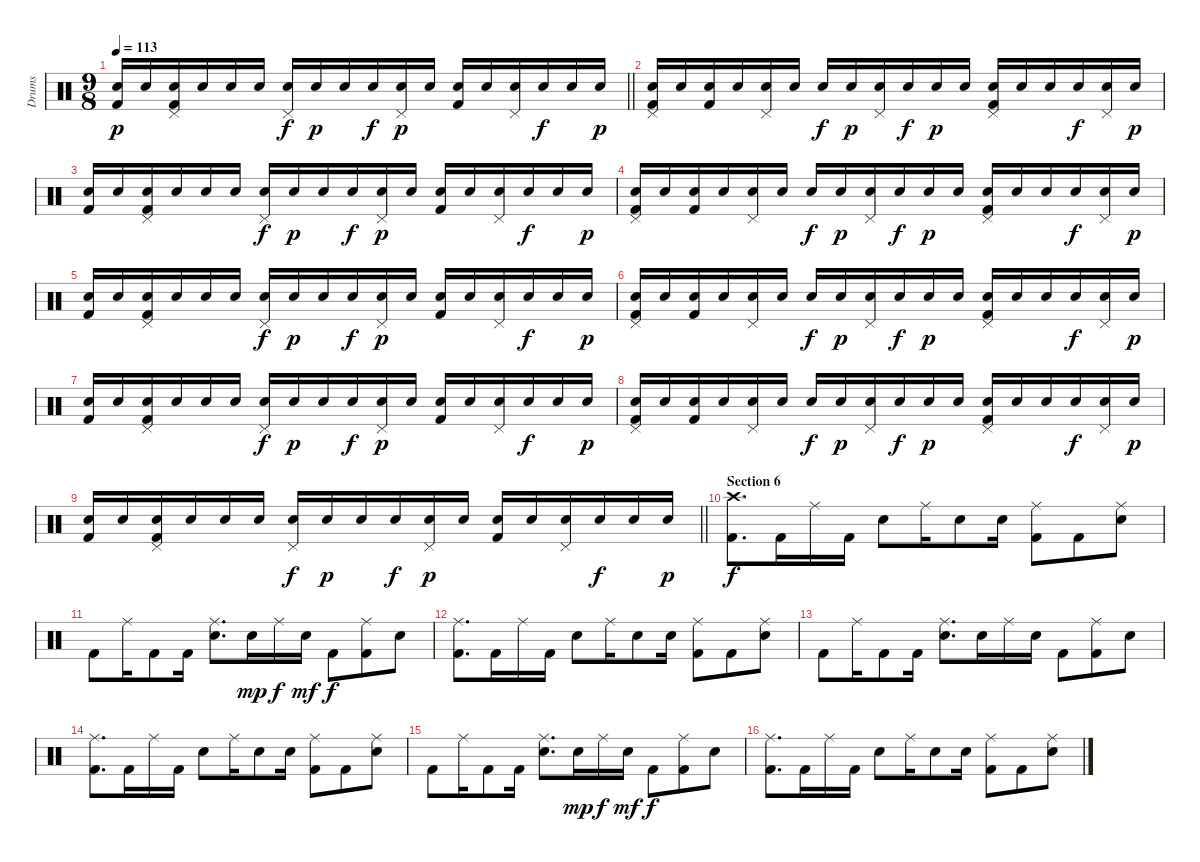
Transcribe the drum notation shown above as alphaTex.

\track ("Drums" "Drums") {instrument percussion}
\staff {score}
\articulation defaults
\ts (9 8)
\tempo 113
\clef neutral
\barLineRight lightlight
\ks c
("Electric Snare (hit)" "Kick (hit) 2").16{dy p} "Electric Snare (hit)".16 ("Pedal Hi-Hat (hit)" "Electric Snare (hit)" "Kick (hit) 2").16 "Electric Snare (hit)".16 "Electric Snare (hit)".16 "Electric Snare (hit)".16 ("Pedal Hi-Hat (hit)" "Electric Snare (hit)").16{dy f} "Electric Snare (hit)".16{dy p} "Electric Snare (hit)".16 "Electric Snare (hit)".16{dy f} ("Pedal Hi-Hat (hit)" "Electric Snare (hit)").16{dy p} "Electric Snare (hit)".16 ("Electric Snare (hit)" "Kick (hit) 2").16 "Electric Snare (hit)".16 ("Pedal Hi-Hat (hit)" "Electric Snare (hit)").16 "Electric Snare (hit)".16{dy f} "Electric Snare (hit)".16 "Electric Snare (hit)".16{dy p} |
("Pedal Hi-Hat (hit)" "Electric Snare (hit)" "Kick (hit) 2").16 "Electric Snare (hit)".16 ("Electric Snare (hit)" "Kick (hit) 2").16 "Electric Snare (hit)".16 ("Pedal Hi-Hat (hit)" "Electric Snare (hit)").16 "Electric Snare (hit)".16 "Electric Snare (hit)".16{dy f} "Electric Snare (hit)".16{dy p} ("Pedal Hi-Hat (hit)" "Electric Snare (hit)").16 "Electric Snare (hit)".16{dy f} "Electric Snare (hit)".16{dy p} "Electric Snare (hit)".16 ("Pedal Hi-Hat (hit)" "Electric Snare (hit)" "Kick (hit) 2").16 "Electric Snare (hit)".16 "Electric Snare (hit)".16 "Electric Snare (hit)".16{dy f} ("Pedal Hi-Hat (hit)" "Electric Snare (hit)").16 "Electric Snare (hit)".16{dy p} |
("Electric Snare (hit)" "Kick (hit) 2").16 "Electric Snare (hit)".16 ("Pedal Hi-Hat (hit)" "Electric Snare (hit)" "Kick (hit) 2").16 "Electric Snare (hit)".16 "Electric Snare (hit)".16 "Electric Snare (hit)".16 ("Pedal Hi-Hat (hit)" "Electric Snare (hit)").16{dy f} "Electric Snare (hit)".16{dy p} "Electric Snare (hit)".16 "Electric Snare (hit)".16{dy f} ("Pedal Hi-Hat (hit)" "Electric Snare (hit)").16{dy p} "Electric Snare (hit)".16 ("Electric Snare (hit)" "Kick (hit) 2").16 "Electric Snare (hit)".16 ("Pedal Hi-Hat (hit)" "Electric Snare (hit)").16 "Electric Snare (hit)".16{dy f} "Electric Snare (hit)".16 "Electric Snare (hit)".16{dy p} |
("Pedal Hi-Hat (hit)" "Electric Snare (hit)" "Kick (hit) 2").16 "Electric Snare (hit)".16 ("Electric Snare (hit)" "Kick (hit) 2").16 "Electric Snare (hit)".16 ("Pedal Hi-Hat (hit)" "Electric Snare (hit)").16 "Electric Snare (hit)".16 "Electric Snare (hit)".16{dy f} "Electric Snare (hit)".16{dy p} ("Pedal Hi-Hat (hit)" "Electric Snare (hit)").16 "Electric Snare (hit)".16{dy f} "Electric Snare (hit)".16{dy p} "Electric Snare (hit)".16 ("Pedal Hi-Hat (hit)" "Electric Snare (hit)" "Kick (hit) 2").16 "Electric Snare (hit)".16 "Electric Snare (hit)".16 "Electric Snare (hit)".16{dy f} ("Pedal Hi-Hat (hit)" "Electric Snare (hit)").16 "Electric Snare (hit)".16{dy p} |
("Electric Snare (hit)" "Kick (hit) 2").16 "Electric Snare (hit)".16 ("Pedal Hi-Hat (hit)" "Electric Snare (hit)" "Kick (hit) 2").16 "Electric Snare (hit)".16 "Electric Snare (hit)".16 "Electric Snare (hit)".16 ("Pedal Hi-Hat (hit)" "Electric Snare (hit)").16{dy f} "Electric Snare (hit)".16{dy p} "Electric Snare (hit)".16 "Electric Snare (hit)".16{dy f} ("Pedal Hi-Hat (hit)" "Electric Snare (hit)").16{dy p} "Electric Snare (hit)".16 ("Electric Snare (hit)" "Kick (hit) 2").16 "Electric Snare (hit)".16 ("Pedal Hi-Hat (hit)" "Electric Snare (hit)").16 "Electric Snare (hit)".16{dy f} "Electric Snare (hit)".16 "Electric Snare (hit)".16{dy p} |
("Pedal Hi-Hat (hit)" "Electric Snare (hit)" "Kick (hit) 2").16 "Electric Snare (hit)".16 ("Electric Snare (hit)" "Kick (hit) 2").16 "Electric Snare (hit)".16 ("Pedal Hi-Hat (hit)" "Electric Snare (hit)").16 "Electric Snare (hit)".16 "Electric Snare (hit)".16{dy f} "Electric Snare (hit)".16{dy p} ("Pedal Hi-Hat (hit)" "Electric Snare (hit)").16 "Electric Snare (hit)".16{dy f} "Electric Snare (hit)".16{dy p} "Electric Snare (hit)".16 ("Pedal Hi-Hat (hit)" "Electric Snare (hit)" "Kick (hit) 2").16 "Electric Snare (hit)".16 "Electric Snare (hit)".16 "Electric Snare (hit)".16{dy f} ("Pedal Hi-Hat (hit)" "Electric Snare (hit)").16 "Electric Snare (hit)".16{dy p} |
("Electric Snare (hit)" "Kick (hit) 2").16 "Electric Snare (hit)".16 ("Pedal Hi-Hat (hit)" "Electric Snare (hit)" "Kick (hit) 2").16 "Electric Snare (hit)".16 "Electric Snare (hit)".16 "Electric Snare (hit)".16 ("Pedal Hi-Hat (hit)" "Electric Snare (hit)").16{dy f} "Electric Snare (hit)".16{dy p} "Electric Snare (hit)".16 "Electric Snare (hit)".16{dy f} ("Pedal Hi-Hat (hit)" "Electric Snare (hit)").16{dy p} "Electric Snare (hit)".16 ("Electric Snare (hit)" "Kick (hit) 2").16 "Electric Snare (hit)".16 ("Pedal Hi-Hat (hit)" "Electric Snare (hit)").16 "Electric Snare (hit)".16{dy f} "Electric Snare (hit)".16 "Electric Snare (hit)".16{dy p} |
("Pedal Hi-Hat (hit)" "Electric Snare (hit)" "Kick (hit) 2").16 "Electric Snare (hit)".16 ("Electric Snare (hit)" "Kick (hit) 2").16 "Electric Snare (hit)".16 ("Pedal Hi-Hat (hit)" "Electric Snare (hit)").16 "Electric Snare (hit)".16 "Electric Snare (hit)".16{dy f} "Electric Snare (hit)".16{dy p} ("Pedal Hi-Hat (hit)" "Electric Snare (hit)").16 "Electric Snare (hit)".16{dy f} "Electric Snare (hit)".16{dy p} "Electric Snare (hit)".16 ("Pedal Hi-Hat (hit)" "Electric Snare (hit)" "Kick (hit) 2").16 "Electric Snare (hit)".16 "Electric Snare (hit)".16 "Electric Snare (hit)".16{dy f} ("Pedal Hi-Hat (hit)" "Electric Snare (hit)").16 "Electric Snare (hit)".16{dy p} |
\barLineRight lightlight
("Electric Snare (hit)" "Kick (hit) 2").16 "Electric Snare (hit)".16 ("Pedal Hi-Hat (hit)" "Electric Snare (hit)" "Kick (hit) 2").16 "Electric Snare (hit)".16 "Electric Snare (hit)".16 "Electric Snare (hit)".16 ("Pedal Hi-Hat (hit)" "Electric Snare (hit)").16{dy f} "Electric Snare (hit)".16{dy p} "Electric Snare (hit)".16 "Electric Snare (hit)".16{dy f} ("Pedal Hi-Hat (hit)" "Electric Snare (hit)").16{dy p} "Electric Snare (hit)".16 ("Electric Snare (hit)" "Kick (hit) 2").16 "Electric Snare (hit)".16 ("Pedal Hi-Hat (hit)" "Electric Snare (hit)").16 "Electric Snare (hit)".16{dy f} "Electric Snare (hit)".16 "Electric Snare (hit)".16{dy p} |
\section ("" "Section 6")
("Crash high (hit)" "Kick (hit) 2").8{d dy f} "Kick (hit) 2".16 "Ride (middle)".16 "Kick (hit) 2".16 "Electric Snare (hit)".8 "Ride (middle)".16 "Electric Snare (hit)".8 "Electric Snare (hit)".16 ("Ride (middle)" "Kick (hit) 2").8 "Kick (hit) 2".8 ("Ride (middle)" "Electric Snare (hit)").8 |
"Kick (hit) 2".8 "Ride (middle)".16 "Kick (hit) 2".8 "Kick (hit) 2".16 ("Ride (middle)" "Electric Snare (hit)").8{d} "Electric Snare (hit)".16{dy mp} "Ride (middle)".16{dy f} "Electric Snare (hit)".16{dy mf} "Kick (hit) 2".8{dy f} ("Ride (middle)" "Kick (hit) 2").8 "Electric Snare (hit)".8 |
("Ride (middle)" "Kick (hit) 2").8{d} "Kick (hit) 2".16 "Ride (middle)".16 "Kick (hit) 2".16 "Electric Snare (hit)".8 "Ride (middle)".16 "Electric Snare (hit)".8 "Electric Snare (hit)".16 ("Ride (middle)" "Kick (hit) 2").8 "Kick (hit) 2".8 ("Ride (middle)" "Electric Snare (hit)").8 |
"Kick (hit) 2".8 "Ride (middle)".16 "Kick (hit) 2".8 "Kick (hit) 2".16 ("Ride (middle)" "Electric Snare (hit)").8{d} "Electric Snare (hit)".16 "Ride (middle)".16 "Electric Snare (hit)".16 "Kick (hit) 2".8 ("Ride (middle)" "Kick (hit) 2").8 "Electric Snare (hit)".8 |
("Ride (middle)" "Kick (hit) 2").8{d} "Kick (hit) 2".16 "Ride (middle)".16 "Kick (hit) 2".16 "Electric Snare (hit)".8 "Ride (middle)".16 "Electric Snare (hit)".8 "Electric Snare (hit)".16 ("Ride (middle)" "Kick (hit) 2").8 "Kick (hit) 2".8 ("Ride (middle)" "Electric Snare (hit)").8 |
"Kick (hit) 2".8 "Ride (middle)".16 "Kick (hit) 2".8 "Kick (hit) 2".16 ("Ride (middle)" "Electric Snare (hit)").8{d} "Electric Snare (hit)".16{dy mp} "Ride (middle)".16{dy f} "Electric Snare (hit)".16{dy mf} "Kick (hit) 2".8{dy f} ("Ride (middle)" "Kick (hit) 2").8 "Electric Snare (hit)".8 |
("Ride (middle)" "Kick (hit) 2").8{d} "Kick (hit) 2".16 "Ride (middle)".16 "Kick (hit) 2".16 "Electric Snare (hit)".8 "Ride (middle)".16 "Electric Snare (hit)".8 "Electric Snare (hit)".16 ("Ride (middle)" "Kick (hit) 2").8 "Kick (hit) 2".8 ("Ride (middle)" "Electric Snare (hit)").8
